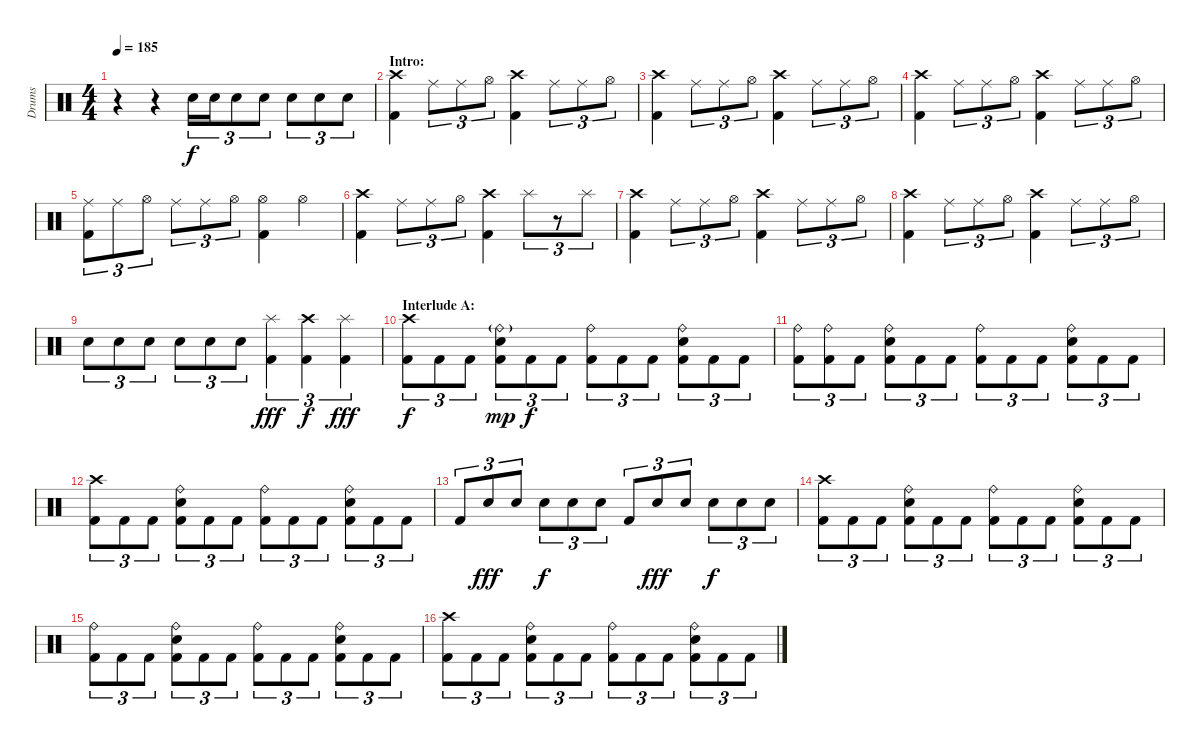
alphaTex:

\track ("Drums" "Drums") {instrument percussion}
\staff {score}
\articulation defaults
\ts (4 4)
\tempo 185
\clef neutral
\ks c
r.4{dy f} r.4 "Electric Snare (hit)".16{tu (3 2)} "Electric Snare (hit)".16{tu (3 2)} "Electric Snare (hit)".8{tu (3 2)} "Electric Snare (hit)".8{tu (3 2)} "Electric Snare (hit)".8{tu (3 2)} "Electric Snare (hit)".8{tu (3 2)} "Electric Snare (hit)".8{tu (3 2)} |
\section ("" "Intro:")
("Crash high (hit)" "Kick (hit) 2").4 "Ride (middle)".8{tu (3 2)} "Ride (middle)".8{tu (3 2)} "Hi-Hat (open)".8{tu (3 2)} ("Crash high (hit)" "Kick (hit) 2").4 "Ride (middle)".8{tu (3 2)} "Ride (middle)".8{tu (3 2)} "Hi-Hat (open)".8{tu (3 2)} |
("Crash high (hit)" "Kick (hit) 2").4 "Ride (middle)".8{tu (3 2)} "Ride (middle)".8{tu (3 2)} "Hi-Hat (open)".8{tu (3 2)} ("Crash high (hit)" "Kick (hit) 2").4 "Ride (middle)".8{tu (3 2)} "Ride (middle)".8{tu (3 2)} "Hi-Hat (open)".8{tu (3 2)} |
("Crash high (hit)" "Kick (hit) 2").4 "Ride (middle)".8{tu (3 2)} "Ride (middle)".8{tu (3 2)} "Hi-Hat (open)".8{tu (3 2)} ("Crash high (hit)" "Kick (hit) 2").4 "Ride (middle)".8{tu (3 2)} "Ride (middle)".8{tu (3 2)} "Hi-Hat (open)".8{tu (3 2)} |
("Ride (middle)" "Kick (hit) 2").8{tu (3 2)} "Ride (middle)".8{tu (3 2)} "Hi-Hat (open)".8{tu (3 2)} "Ride (middle)".8{tu (3 2)} "Ride (middle)".8{tu (3 2)} "Hi-Hat (open)".8{tu (3 2)} ("Hi-Hat (open)" "Kick (hit) 2").4 "Hi-Hat (open)".4 |
("Crash high (hit)" "Kick (hit) 2").4 "Ride (middle)".8{tu (3 2)} "Ride (middle)".8{tu (3 2)} "Hi-Hat (open)".8{tu (3 2)} ("Crash high (hit)" "Kick (hit) 2").4 "Splash (hit)".8{tu (3 2)} r.8{tu (3 2)} "Splash (hit)".8{tu (3 2)} |
("Crash high (hit)" "Kick (hit) 2").4 "Ride (middle)".8{tu (3 2)} "Ride (middle)".8{tu (3 2)} "Hi-Hat (open)".8{tu (3 2)} ("Crash high (hit)" "Kick (hit) 2").4 "Ride (middle)".8{tu (3 2)} "Ride (middle)".8{tu (3 2)} "Hi-Hat (open)".8{tu (3 2)} |
("Crash high (hit)" "Kick (hit) 2").4 "Ride (middle)".8{tu (3 2)} "Ride (middle)".8{tu (3 2)} "Hi-Hat (open)".8{tu (3 2)} ("Crash high (hit)" "Kick (hit) 2").4 "Ride (middle)".8{tu (3 2)} "Ride (middle)".8{tu (3 2)} "Hi-Hat (open)".8{tu (3 2)} |
"Electric Snare (hit)".8{tu (3 2)} "Electric Snare (hit)".8{tu (3 2)} "Electric Snare (hit)".8{tu (3 2)} "Electric Snare (hit)".8{tu (3 2)} "Electric Snare (hit)".8{tu (3 2)} "Electric Snare (hit)".8{tu (3 2)} ("Splash (hit)" "Kick (hit) 2").4{tu (3 2) dy fff} ("Crash high (hit)" "Kick (hit) 2").4{tu (3 2) dy f} ("Splash (hit)" "Kick (hit) 2").4{tu (3 2) dy fff} |
\section ("" "Interlude A:")
("Crash high (hit)" "Kick (hit) 2").8{tu (3 2) dy f} "Kick (hit) 2".8{tu (3 2)} "Kick (hit) 2".8{tu (3 2)} ("Ride (bell)"{g} "Electric Snare (hit)" "Kick (hit) 2").8{tu (3 2) dy mp} "Kick (hit) 2".8{tu (3 2) dy f} "Kick (hit) 2".8{tu (3 2)} ("Ride (bell)" "Kick (hit) 2").8{tu (3 2)} "Kick (hit) 2".8{tu (3 2)} "Kick (hit) 2".8{tu (3 2)} ("Ride (bell)" "Electric Snare (hit)" "Kick (hit) 2").8{tu (3 2)} "Kick (hit) 2".8{tu (3 2)} "Kick (hit) 2".8{tu (3 2)} |
("Ride (bell)" "Kick (hit) 2").8{tu (3 2)} ("Ride (bell)" "Kick (hit) 2").8{tu (3 2)} "Kick (hit) 2".8{tu (3 2)} ("Ride (bell)" "Electric Snare (hit)" "Kick (hit) 2").8{tu (3 2)} "Kick (hit) 2".8{tu (3 2)} "Kick (hit) 2".8{tu (3 2)} ("Ride (bell)" "Kick (hit) 2").8{tu (3 2)} "Kick (hit) 2".8{tu (3 2)} "Kick (hit) 2".8{tu (3 2)} ("Ride (bell)" "Electric Snare (hit)" "Kick (hit) 2").8{tu (3 2)} "Kick (hit) 2".8{tu (3 2)} "Kick (hit) 2".8{tu (3 2)} |
("Crash high (hit)" "Kick (hit) 2").8{tu (3 2)} "Kick (hit) 2".8{tu (3 2)} "Kick (hit) 2".8{tu (3 2)} ("Ride (bell)" "Electric Snare (hit)" "Kick (hit) 2").8{tu (3 2)} "Kick (hit) 2".8{tu (3 2)} "Kick (hit) 2".8{tu (3 2)} ("Ride (bell)" "Kick (hit) 2").8{tu (3 2)} "Kick (hit) 2".8{tu (3 2)} "Kick (hit) 2".8{tu (3 2)} ("Ride (bell)" "Electric Snare (hit)" "Kick (hit) 2").8{tu (3 2)} "Kick (hit) 2".8{tu (3 2)} "Kick (hit) 2".8{tu (3 2)} |
"Kick (hit) 2".8{tu (3 2)} "Electric Snare (hit)".8{tu (3 2) dy fff} "Electric Snare (hit)".8{tu (3 2)} "Electric Snare (hit)".8{tu (3 2) dy f} "Electric Snare (hit)".8{tu (3 2)} "Electric Snare (hit)".8{tu (3 2)} "Kick (hit) 2".8{tu (3 2)} "Electric Snare (hit)".8{tu (3 2) dy fff} "Electric Snare (hit)".8{tu (3 2)} "Electric Snare (hit)".8{tu (3 2) dy f} "Electric Snare (hit)".8{tu (3 2)} "Electric Snare (hit)".8{tu (3 2)} |
("Crash high (hit)" "Kick (hit) 2").8{tu (3 2)} "Kick (hit) 2".8{tu (3 2)} "Kick (hit) 2".8{tu (3 2)} ("Ride (bell)" "Electric Snare (hit)" "Kick (hit) 2").8{tu (3 2)} "Kick (hit) 2".8{tu (3 2)} "Kick (hit) 2".8{tu (3 2)} ("Ride (bell)" "Kick (hit) 2").8{tu (3 2)} "Kick (hit) 2".8{tu (3 2)} "Kick (hit) 2".8{tu (3 2)} ("Ride (bell)" "Electric Snare (hit)" "Kick (hit) 2").8{tu (3 2)} "Kick (hit) 2".8{tu (3 2)} "Kick (hit) 2".8{tu (3 2)} |
("Ride (bell)" "Kick (hit) 2").8{tu (3 2)} "Kick (hit) 2".8{tu (3 2)} "Kick (hit) 2".8{tu (3 2)} ("Ride (bell)" "Electric Snare (hit)" "Kick (hit) 2").8{tu (3 2)} "Kick (hit) 2".8{tu (3 2)} "Kick (hit) 2".8{tu (3 2)} ("Ride (bell)" "Kick (hit) 2").8{tu (3 2)} "Kick (hit) 2".8{tu (3 2)} "Kick (hit) 2".8{tu (3 2)} ("Ride (bell)" "Electric Snare (hit)" "Kick (hit) 2").8{tu (3 2)} "Kick (hit) 2".8{tu (3 2)} "Kick (hit) 2".8{tu (3 2)} |
("Crash high (hit)" "Kick (hit) 2").8{tu (3 2)} "Kick (hit) 2".8{tu (3 2)} "Kick (hit) 2".8{tu (3 2)} ("Ride (bell)" "Electric Snare (hit)" "Kick (hit) 2").8{tu (3 2)} "Kick (hit) 2".8{tu (3 2)} "Kick (hit) 2".8{tu (3 2)} ("Ride (bell)" "Kick (hit) 2").8{tu (3 2)} "Kick (hit) 2".8{tu (3 2)} "Kick (hit) 2".8{tu (3 2)} ("Ride (bell)" "Electric Snare (hit)" "Kick (hit) 2").8{tu (3 2)} "Kick (hit) 2".8{tu (3 2)} "Kick (hit) 2".8{tu (3 2)}
